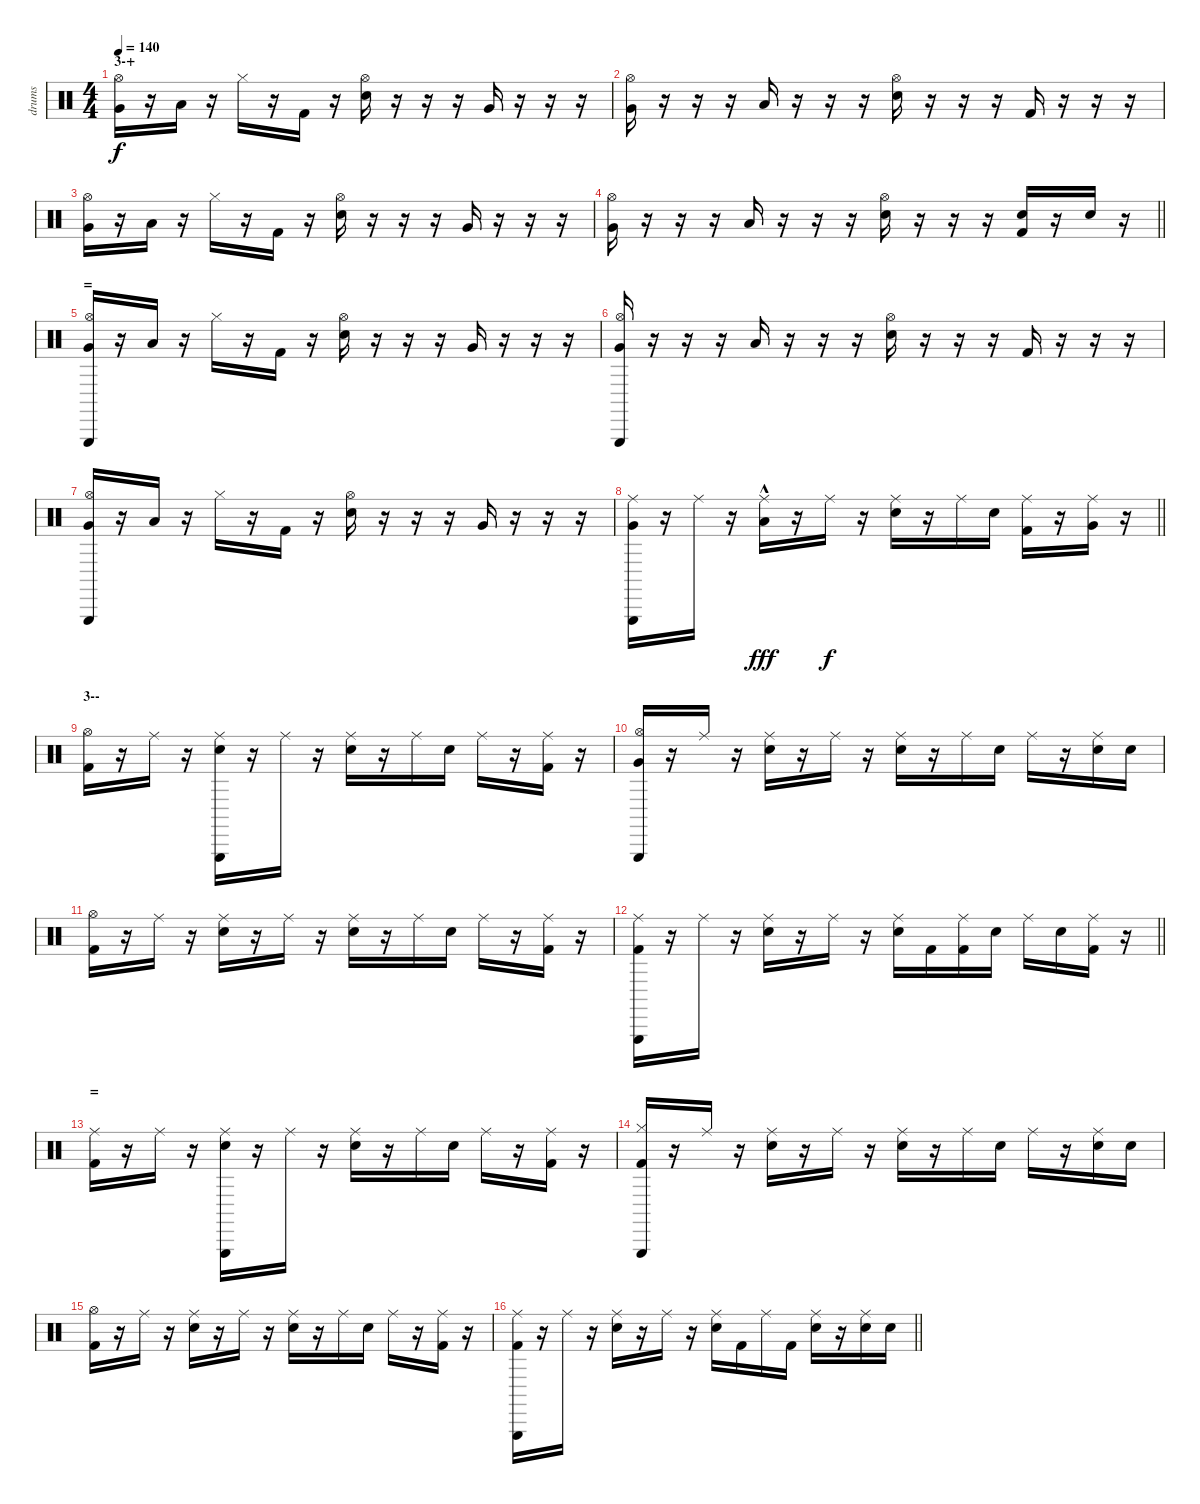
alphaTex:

\track ("drums" "drums") {instrument percussion}
\staff {score}
\articulation defaults
\ts (4 4)
\section ("" "3-+")
\tempo 140
\clef neutral
\ks c
("Very Low Tom (hit)" "Hi-Hat (open)").16{dy f} r.16 "Low Floor Tom (hit)".16 r.16 "Hi-Hat (closed)".16 r.16 "Kick (hit) 2".16 r.16 ("Electric Snare (hit)" "Hi-Hat (open)").16 r.16 r.16 r.16 "Very Low Tom (hit)".16 r.16 r.16 r.16 |
("Very Low Tom (hit)" "Hi-Hat (open)").16 r.16 r.16 r.16 "Low Floor Tom (hit)".16 r.16 r.16 r.16 ("Electric Snare (hit)" "Hi-Hat (open)").16 r.16 r.16 r.16 "Kick (hit) 2".16 r.16 r.16 r.16 |
("Very Low Tom (hit)" "Hi-Hat (open)").16 r.16 "Low Floor Tom (hit)".16 r.16 "Hi-Hat (closed)".16 r.16 "Kick (hit) 2".16 r.16 ("Electric Snare (hit)" "Hi-Hat (open)").16 r.16 r.16 r.16 "Very Low Tom (hit)".16 r.16 r.16 r.16 |
\barLineRight lightlight
("Very Low Tom (hit)" "Hi-Hat (open)").16 r.16 r.16 r.16 "Low Floor Tom (hit)".16 r.16 r.16 r.16 ("Electric Snare (hit)" "Hi-Hat (open)").16 r.16 r.16 r.16 ("Kick (hit) 2" "Electric Snare (hit)").16 r.16 "Electric Snare (hit)".16 r.16 |
\section ("" "=")
("Very Low Tom (hit)" "Triangle (hit)" "Hi-Hat (open)").16 r.16 "Low Floor Tom (hit)".16 r.16 "Hi-Hat (closed)".16 r.16 "Kick (hit) 2".16 r.16 ("Electric Snare (hit)" "Hi-Hat (open)").16 r.16 r.16 r.16 "Very Low Tom (hit)".16 r.16 r.16 r.16 |
("Very Low Tom (hit)" "Triangle (hit)" "Hi-Hat (open)").16 r.16 r.16 r.16 "Low Floor Tom (hit)".16 r.16 r.16 r.16 ("Electric Snare (hit)" "Hi-Hat (open)").16 r.16 r.16 r.16 "Kick (hit) 2".16 r.16 r.16 r.16 |
("Very Low Tom (hit)" "Triangle (hit)" "Hi-Hat (open)").16 r.16 "Low Floor Tom (hit)".16 r.16 "Hi-Hat (closed)".16 r.16 "Kick (hit) 2".16 r.16 ("Electric Snare (hit)" "Hi-Hat (open)").16 r.16 r.16 r.16 "Very Low Tom (hit)".16 r.16 r.16 r.16 |
\barLineRight lightlight
("Very Low Tom (hit)" "Triangle (hit)" "Ride (middle)").16 r.16 "Ride (middle)".16 r.16 ("Low Floor Tom (hit)" "Ride (middle)"{hac}).16{dy fff} r.16 "Ride (middle)".16{dy f} r.16 ("Electric Snare (hit)" "Ride (middle)").16 r.16 "Ride (middle)".16 "Electric Snare (hit)".16 ("Kick (hit) 2" "Ride (middle)").16 r.16 ("Very Low Tom (hit)" "Ride (middle)").16 r.16 |
\section ("" "3--")
("Kick (hit) 2" "Hi-Hat (open)").16 r.16 "Ride (middle)".16 r.16 ("Electric Snare (hit)" "Ride (middle)" "Triangle (hit)").16 r.16 "Ride (middle)".16 r.16 ("Electric Snare (hit)" "Ride (middle)").16 r.16 "Ride (middle)".16 "Electric Snare (hit)".16 "Ride (middle)".16 r.16 ("Kick (hit) 2" "Ride (middle)").16 r.16 |
("Very Low Tom (hit)" "Hi-Hat (open)" "Triangle (hit)").16 r.16 "Ride (middle)".16 r.16 ("Electric Snare (hit)" "Ride (middle)").16 r.16 "Ride (middle)".16 r.16 ("Electric Snare (hit)" "Ride (middle)").16 r.16 "Ride (middle)".16 "Electric Snare (hit)".16 "Ride (middle)".16 r.16 ("Electric Snare (hit)" "Ride (middle)").16 "Electric Snare (hit)".16 |
("Kick (hit) 2" "Hi-Hat (open)").16 r.16 "Ride (middle)".16 r.16 ("Electric Snare (hit)" "Ride (middle)").16 r.16 "Ride (middle)".16 r.16 ("Electric Snare (hit)" "Ride (middle)").16 r.16 "Ride (middle)".16 "Electric Snare (hit)".16 "Ride (middle)".16 r.16 ("Kick (hit) 2" "Ride (middle)").16 r.16 |
\barLineRight lightlight
("Kick (hit) 2" "Ride (middle)" "Triangle (hit)").16 r.16 "Ride (middle)".16 r.16 ("Electric Snare (hit)" "Ride (middle)").16 r.16 "Ride (middle)".16 r.16 ("Electric Snare (hit)" "Ride (middle)").16 "Kick (hit) 2".16 ("Kick (hit) 2" "Ride (middle)").16 "Electric Snare (hit)".16 "Ride (middle)".16 "Electric Snare (hit)".16 ("Kick (hit) 2" "Ride (middle)").16 r.16 |
\section ("" "=")
("Kick (hit) 2" "Ride (middle)").16 r.16 "Ride (middle)".16 r.16 ("Electric Snare (hit)" "Ride (middle)" "Triangle (hit)").16 r.16 "Ride (middle)".16 r.16 ("Electric Snare (hit)" "Ride (middle)").16 r.16 "Ride (middle)".16 "Electric Snare (hit)".16 "Ride (middle)".16 r.16 ("Kick (hit) 2" "Ride (middle)").16 r.16 |
("Kick (hit) 2" "Hi-Hat (closed)" "Triangle (hit)").16 r.16 "Ride (middle)".16 r.16 ("Electric Snare (hit)" "Ride (middle)").16 r.16 "Ride (middle)".16 r.16 ("Electric Snare (hit)" "Ride (middle)").16 r.16 "Ride (middle)".16 "Electric Snare (hit)".16 "Ride (middle)".16 r.16 ("Electric Snare (hit)" "Ride (middle)").16 "Electric Snare (hit)".16 |
("Kick (hit) 2" "Hi-Hat (open)").16 r.16 "Ride (middle)".16 r.16 ("Electric Snare (hit)" "Ride (middle)").16 r.16 "Ride (middle)".16 r.16 ("Electric Snare (hit)" "Ride (middle)").16 r.16 "Ride (middle)".16 "Electric Snare (hit)".16 "Ride (middle)".16 r.16 ("Kick (hit) 2" "Ride (middle)").16 r.16 |
\barLineRight lightlight
("Kick (hit) 2" "Ride (middle)" "Triangle (hit)").16 r.16 "Ride (middle)".16 r.16 ("Electric Snare (hit)" "Ride (middle)").16 r.16 "Ride (middle)".16 r.16 ("Electric Snare (hit)" "Ride (middle)").16 "Kick (hit) 2".16 "Ride (middle)".16 "Kick (hit) 2".16 ("Electric Snare (hit)" "Ride (middle)").16 r.16 ("Electric Snare (hit)" "Ride (middle)").16 "Electric Snare (hit)".16
